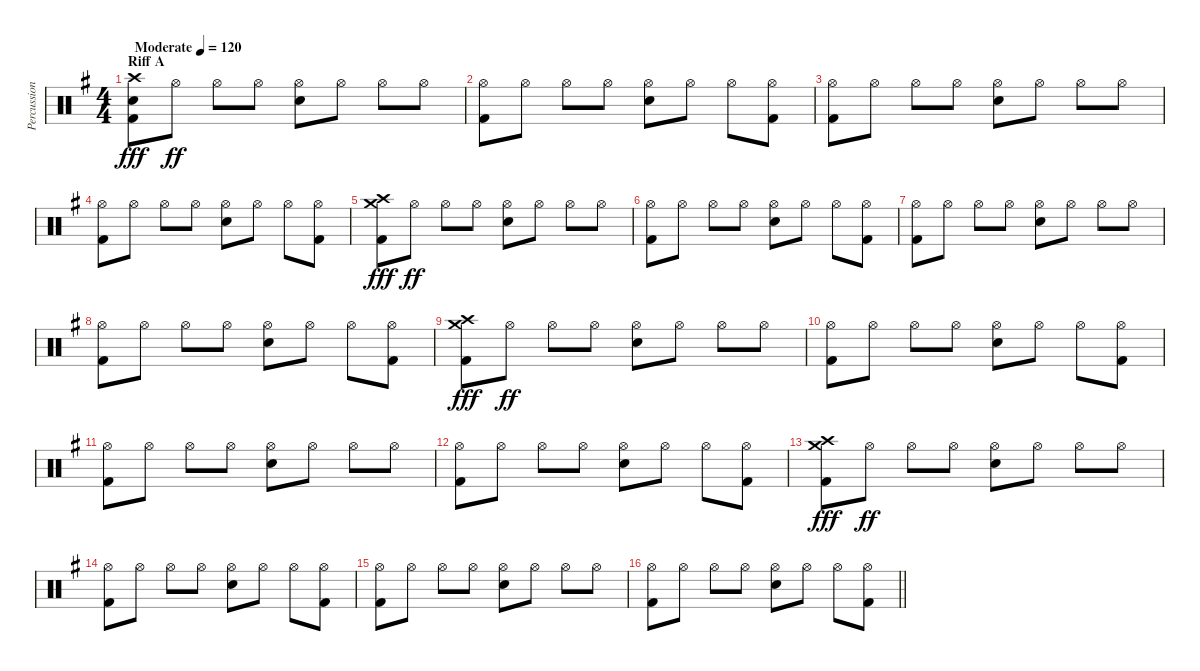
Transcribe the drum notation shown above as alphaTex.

\track ("Percussion" "Percussion") {instrument percussion}
\staff {score}
\articulation defaults
\ts (4 4)
\section ("" "Riff A")
\tempo (120 "Moderate")
\clef neutral
\ks eminor
("Kick (hit) 2" "Crash high (hit)" "Snare (hit)").8{dy fff} "Hi-Hat (open)".8{dy ff} "Hi-Hat (open)".8 "Hi-Hat (open)".8 ("Snare (hit) 2" "Hi-Hat (open)").8 "Hi-Hat (open)".8 "Hi-Hat (open)".8 "Hi-Hat (open)".8 |
("Kick (hit) 2" "Hi-Hat (open)").8 "Hi-Hat (open)".8 "Hi-Hat (open)".8 "Hi-Hat (open)".8 ("Snare (hit) 2" "Hi-Hat (open)").8 "Hi-Hat (open)".8 "Hi-Hat (open)".8 ("Kick (hit) 2" "Hi-Hat (open)").8 |
("Kick (hit) 2" "Hi-Hat (open)").8 "Hi-Hat (open)".8 "Hi-Hat (open)".8 "Hi-Hat (open)".8 ("Snare (hit) 2" "Hi-Hat (open)").8 "Hi-Hat (open)".8 "Hi-Hat (open)".8 "Hi-Hat (open)".8 |
("Kick (hit) 2" "Hi-Hat (open)").8 "Hi-Hat (open)".8 "Hi-Hat (open)".8 "Hi-Hat (open)".8 ("Snare (hit) 2" "Hi-Hat (open)").8 "Hi-Hat (open)".8 "Hi-Hat (open)".8 ("Kick (hit) 2" "Hi-Hat (open)").8 |
("Kick (hit) 2" "Crash high (hit)" "Crash medium (hit)").8{dy fff} "Hi-Hat (open)".8{dy ff} "Hi-Hat (open)".8 "Hi-Hat (open)".8 ("Snare (hit) 2" "Hi-Hat (open)").8 "Hi-Hat (open)".8 "Hi-Hat (open)".8 "Hi-Hat (open)".8 |
("Kick (hit) 2" "Hi-Hat (open)").8 "Hi-Hat (open)".8 "Hi-Hat (open)".8 "Hi-Hat (open)".8 ("Snare (hit) 2" "Hi-Hat (open)").8 "Hi-Hat (open)".8 "Hi-Hat (open)".8 ("Kick (hit) 2" "Hi-Hat (open)").8 |
("Kick (hit) 2" "Hi-Hat (open)").8 "Hi-Hat (open)".8 "Hi-Hat (open)".8 "Hi-Hat (open)".8 ("Snare (hit) 2" "Hi-Hat (open)").8 "Hi-Hat (open)".8 "Hi-Hat (open)".8 "Hi-Hat (open)".8 |
("Kick (hit) 2" "Hi-Hat (open)").8 "Hi-Hat (open)".8 "Hi-Hat (open)".8 "Hi-Hat (open)".8 ("Snare (hit) 2" "Hi-Hat (open)").8 "Hi-Hat (open)".8 "Hi-Hat (open)".8 ("Kick (hit) 2" "Hi-Hat (open)").8 |
("Kick (hit) 2" "Crash high (hit)" "Crash medium (hit)").8{dy fff} "Hi-Hat (open)".8{dy ff} "Hi-Hat (open)".8 "Hi-Hat (open)".8 ("Snare (hit) 2" "Hi-Hat (open)").8 "Hi-Hat (open)".8 "Hi-Hat (open)".8 "Hi-Hat (open)".8 |
("Kick (hit) 2" "Hi-Hat (open)").8 "Hi-Hat (open)".8 "Hi-Hat (open)".8 "Hi-Hat (open)".8 ("Snare (hit) 2" "Hi-Hat (open)").8 "Hi-Hat (open)".8 "Hi-Hat (open)".8 ("Kick (hit) 2" "Hi-Hat (open)").8 |
("Kick (hit) 2" "Hi-Hat (open)").8 "Hi-Hat (open)".8 "Hi-Hat (open)".8 "Hi-Hat (open)".8 ("Snare (hit) 2" "Hi-Hat (open)").8 "Hi-Hat (open)".8 "Hi-Hat (open)".8 "Hi-Hat (open)".8 |
("Kick (hit) 2" "Hi-Hat (open)").8 "Hi-Hat (open)".8 "Hi-Hat (open)".8 "Hi-Hat (open)".8 ("Snare (hit) 2" "Hi-Hat (open)").8 "Hi-Hat (open)".8 "Hi-Hat (open)".8 ("Kick (hit) 2" "Hi-Hat (open)").8 |
("Kick (hit) 2" "Crash high (hit)" "Crash medium (hit)").8{dy fff} "Hi-Hat (open)".8{dy ff} "Hi-Hat (open)".8 "Hi-Hat (open)".8 ("Snare (hit) 2" "Hi-Hat (open)").8 "Hi-Hat (open)".8 "Hi-Hat (open)".8 "Hi-Hat (open)".8 |
("Kick (hit) 2" "Hi-Hat (open)").8 "Hi-Hat (open)".8 "Hi-Hat (open)".8 "Hi-Hat (open)".8 ("Snare (hit) 2" "Hi-Hat (open)").8 "Hi-Hat (open)".8 "Hi-Hat (open)".8 ("Kick (hit) 2" "Hi-Hat (open)").8 |
("Kick (hit) 2" "Hi-Hat (open)").8 "Hi-Hat (open)".8 "Hi-Hat (open)".8 "Hi-Hat (open)".8 ("Snare (hit) 2" "Hi-Hat (open)").8 "Hi-Hat (open)".8 "Hi-Hat (open)".8 "Hi-Hat (open)".8 |
\barLineRight lightlight
("Kick (hit) 2" "Hi-Hat (open)").8 "Hi-Hat (open)".8 "Hi-Hat (open)".8 "Hi-Hat (open)".8 ("Snare (hit) 2" "Hi-Hat (open)").8 "Hi-Hat (open)".8 "Hi-Hat (open)".8 ("Kick (hit) 2" "Hi-Hat (open)").8
